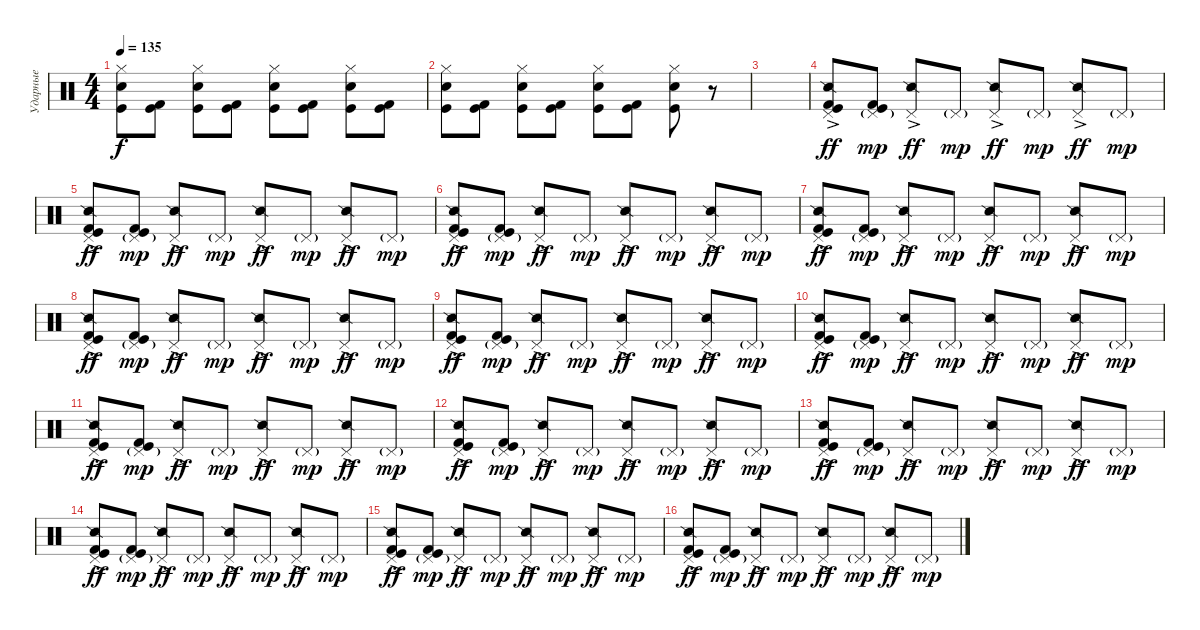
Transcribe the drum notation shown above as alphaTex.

\track ("Ударные" "Ударные") {instrument percussion}
\staff {score}
\articulation defaults
\ts (4 4)
\tempo 135
\clef neutral
\ks c
("Hi-Hat (closed)" "Electric Snare (hit)" "Kick (hit)").8{dy f} ("Kick (hit)" "Kick (hit) 2").8 ("Hi-Hat (closed)" "Electric Snare (hit)" "Kick (hit)").8 ("Kick (hit)" "Kick (hit) 2").8 ("Hi-Hat (closed)" "Electric Snare (hit)" "Kick (hit)").8 ("Kick (hit)" "Kick (hit) 2").8 ("Hi-Hat (closed)" "Electric Snare (hit)" "Kick (hit)").8 ("Kick (hit)" "Kick (hit) 2").8 |
("Hi-Hat (closed)" "Electric Snare (hit)" "Kick (hit)").8 ("Kick (hit)" "Kick (hit) 2").8 ("Hi-Hat (closed)" "Electric Snare (hit)" "Kick (hit)").8 ("Kick (hit)" "Kick (hit) 2").8 ("Hi-Hat (closed)" "Electric Snare (hit)" "Kick (hit)").8 ("Kick (hit)" "Kick (hit) 2").8 ("Hi-Hat (closed)" "Electric Snare (hit)" "Kick (hit)").8 r.8 |
|
("Pedal Hi-Hat (hit)"{ac} "Kick (hit)" "Kick (hit) 2" "Snare (side stick) 2").8{dy ff} ("Pedal Hi-Hat (hit)"{g} "Kick (hit)" "Kick (hit) 2").8{dy mp} ("Pedal Hi-Hat (hit)"{ac} "Snare (side stick) 2").8{dy ff} "Pedal Hi-Hat (hit)"{g}.8{dy mp} ("Pedal Hi-Hat (hit)"{ac} "Snare (side stick) 2").8{dy ff} "Pedal Hi-Hat (hit)"{g}.8{dy mp} ("Pedal Hi-Hat (hit)"{ac} "Snare (side stick) 2").8{dy ff} "Pedal Hi-Hat (hit)"{g}.8{dy mp} |
("Pedal Hi-Hat (hit)"{ac} "Kick (hit)" "Kick (hit) 2" "Snare (side stick) 2").8{dy ff} ("Pedal Hi-Hat (hit)"{g} "Kick (hit)" "Kick (hit) 2").8{dy mp} ("Pedal Hi-Hat (hit)"{ac} "Snare (side stick) 2").8{dy ff} "Pedal Hi-Hat (hit)"{g}.8{dy mp} ("Pedal Hi-Hat (hit)"{ac} "Snare (side stick) 2").8{dy ff} "Pedal Hi-Hat (hit)"{g}.8{dy mp} ("Pedal Hi-Hat (hit)"{ac} "Snare (side stick) 2").8{dy ff} "Pedal Hi-Hat (hit)"{g}.8{dy mp} |
("Pedal Hi-Hat (hit)"{ac} "Kick (hit)" "Kick (hit) 2" "Snare (side stick) 2").8{dy ff} ("Pedal Hi-Hat (hit)"{g} "Kick (hit)" "Kick (hit) 2").8{dy mp} ("Pedal Hi-Hat (hit)"{ac} "Snare (side stick) 2").8{dy ff} "Pedal Hi-Hat (hit)"{g}.8{dy mp} ("Pedal Hi-Hat (hit)"{ac} "Snare (side stick) 2").8{dy ff} "Pedal Hi-Hat (hit)"{g}.8{dy mp} ("Pedal Hi-Hat (hit)"{ac} "Snare (side stick) 2").8{dy ff} "Pedal Hi-Hat (hit)"{g}.8{dy mp} |
("Pedal Hi-Hat (hit)"{ac} "Kick (hit)" "Kick (hit) 2" "Snare (side stick) 2").8{dy ff} ("Pedal Hi-Hat (hit)"{g} "Kick (hit)" "Kick (hit) 2").8{dy mp} ("Pedal Hi-Hat (hit)"{ac} "Snare (side stick) 2").8{dy ff} "Pedal Hi-Hat (hit)"{g}.8{dy mp} ("Pedal Hi-Hat (hit)"{ac} "Snare (side stick) 2").8{dy ff} "Pedal Hi-Hat (hit)"{g}.8{dy mp} ("Pedal Hi-Hat (hit)"{ac} "Snare (side stick) 2").8{dy ff} "Pedal Hi-Hat (hit)"{g}.8{dy mp} |
("Pedal Hi-Hat (hit)"{ac} "Kick (hit)" "Kick (hit) 2" "Snare (side stick) 2").8{dy ff} ("Pedal Hi-Hat (hit)"{g} "Kick (hit)" "Kick (hit) 2").8{dy mp} ("Pedal Hi-Hat (hit)"{ac} "Snare (side stick) 2").8{dy ff} "Pedal Hi-Hat (hit)"{g}.8{dy mp} ("Pedal Hi-Hat (hit)"{ac} "Snare (side stick) 2").8{dy ff} "Pedal Hi-Hat (hit)"{g}.8{dy mp} ("Pedal Hi-Hat (hit)"{ac} "Snare (side stick) 2").8{dy ff} "Pedal Hi-Hat (hit)"{g}.8{dy mp} |
("Pedal Hi-Hat (hit)"{ac} "Kick (hit)" "Kick (hit) 2" "Snare (side stick) 2").8{dy ff} ("Pedal Hi-Hat (hit)"{g} "Kick (hit)" "Kick (hit) 2").8{dy mp} ("Pedal Hi-Hat (hit)"{ac} "Snare (side stick) 2").8{dy ff} "Pedal Hi-Hat (hit)"{g}.8{dy mp} ("Pedal Hi-Hat (hit)"{ac} "Snare (side stick) 2").8{dy ff} "Pedal Hi-Hat (hit)"{g}.8{dy mp} ("Pedal Hi-Hat (hit)"{ac} "Snare (side stick) 2").8{dy ff} "Pedal Hi-Hat (hit)"{g}.8{dy mp} |
("Pedal Hi-Hat (hit)"{ac} "Kick (hit)" "Kick (hit) 2" "Snare (side stick) 2").8{dy ff} ("Pedal Hi-Hat (hit)"{g} "Kick (hit)" "Kick (hit) 2").8{dy mp} ("Pedal Hi-Hat (hit)"{ac} "Snare (side stick) 2").8{dy ff} "Pedal Hi-Hat (hit)"{g}.8{dy mp} ("Pedal Hi-Hat (hit)"{ac} "Snare (side stick) 2").8{dy ff} "Pedal Hi-Hat (hit)"{g}.8{dy mp} ("Pedal Hi-Hat (hit)"{ac} "Snare (side stick) 2").8{dy ff} "Pedal Hi-Hat (hit)"{g}.8{dy mp} |
("Pedal Hi-Hat (hit)"{ac} "Kick (hit)" "Kick (hit) 2" "Snare (side stick) 2").8{dy ff} ("Pedal Hi-Hat (hit)"{g} "Kick (hit)" "Kick (hit) 2").8{dy mp} ("Pedal Hi-Hat (hit)"{ac} "Snare (side stick) 2").8{dy ff} "Pedal Hi-Hat (hit)"{g}.8{dy mp} ("Pedal Hi-Hat (hit)"{ac} "Snare (side stick) 2").8{dy ff} "Pedal Hi-Hat (hit)"{g}.8{dy mp} ("Pedal Hi-Hat (hit)"{ac} "Snare (side stick) 2").8{dy ff} "Pedal Hi-Hat (hit)"{g}.8{dy mp} |
("Pedal Hi-Hat (hit)"{ac} "Kick (hit)" "Kick (hit) 2" "Snare (side stick) 2").8{dy ff} ("Pedal Hi-Hat (hit)"{g} "Kick (hit)" "Kick (hit) 2").8{dy mp} ("Pedal Hi-Hat (hit)"{ac} "Snare (side stick) 2").8{dy ff} "Pedal Hi-Hat (hit)"{g}.8{dy mp} ("Pedal Hi-Hat (hit)"{ac} "Snare (side stick) 2").8{dy ff} "Pedal Hi-Hat (hit)"{g}.8{dy mp} ("Pedal Hi-Hat (hit)"{ac} "Snare (side stick) 2").8{dy ff} "Pedal Hi-Hat (hit)"{g}.8{dy mp} |
("Pedal Hi-Hat (hit)"{ac} "Kick (hit)" "Kick (hit) 2" "Snare (side stick) 2").8{dy ff} ("Pedal Hi-Hat (hit)"{g} "Kick (hit)" "Kick (hit) 2").8{dy mp} ("Pedal Hi-Hat (hit)"{ac} "Snare (side stick) 2").8{dy ff} "Pedal Hi-Hat (hit)"{g}.8{dy mp} ("Pedal Hi-Hat (hit)"{ac} "Snare (side stick) 2").8{dy ff} "Pedal Hi-Hat (hit)"{g}.8{dy mp} ("Pedal Hi-Hat (hit)"{ac} "Snare (side stick) 2").8{dy ff} "Pedal Hi-Hat (hit)"{g}.8{dy mp} |
("Pedal Hi-Hat (hit)"{ac} "Kick (hit)" "Kick (hit) 2" "Snare (side stick) 2").8{dy ff} ("Pedal Hi-Hat (hit)"{g} "Kick (hit)" "Kick (hit) 2").8{dy mp} ("Pedal Hi-Hat (hit)"{ac} "Snare (side stick) 2").8{dy ff} "Pedal Hi-Hat (hit)"{g}.8{dy mp} ("Pedal Hi-Hat (hit)"{ac} "Snare (side stick) 2").8{dy ff} "Pedal Hi-Hat (hit)"{g}.8{dy mp} ("Pedal Hi-Hat (hit)"{ac} "Snare (side stick) 2").8{dy ff} "Pedal Hi-Hat (hit)"{g}.8{dy mp} |
("Pedal Hi-Hat (hit)"{ac} "Kick (hit)" "Kick (hit) 2" "Snare (side stick) 2").8{dy ff} ("Pedal Hi-Hat (hit)"{g} "Kick (hit)" "Kick (hit) 2").8{dy mp} ("Pedal Hi-Hat (hit)"{ac} "Snare (side stick) 2").8{dy ff} "Pedal Hi-Hat (hit)"{g}.8{dy mp} ("Pedal Hi-Hat (hit)"{ac} "Snare (side stick) 2").8{dy ff} "Pedal Hi-Hat (hit)"{g}.8{dy mp} ("Pedal Hi-Hat (hit)"{ac} "Snare (side stick) 2").8{dy ff} "Pedal Hi-Hat (hit)"{g}.8{dy mp} |
("Pedal Hi-Hat (hit)"{ac} "Kick (hit)" "Kick (hit) 2" "Snare (side stick) 2").8{dy ff} ("Pedal Hi-Hat (hit)"{g} "Kick (hit)" "Kick (hit) 2").8{dy mp} ("Pedal Hi-Hat (hit)"{ac} "Snare (side stick) 2").8{dy ff} "Pedal Hi-Hat (hit)"{g}.8{dy mp} ("Pedal Hi-Hat (hit)"{ac} "Snare (side stick) 2").8{dy ff} "Pedal Hi-Hat (hit)"{g}.8{dy mp} ("Pedal Hi-Hat (hit)"{ac} "Snare (side stick) 2").8{dy ff} "Pedal Hi-Hat (hit)"{g}.8{dy mp}
